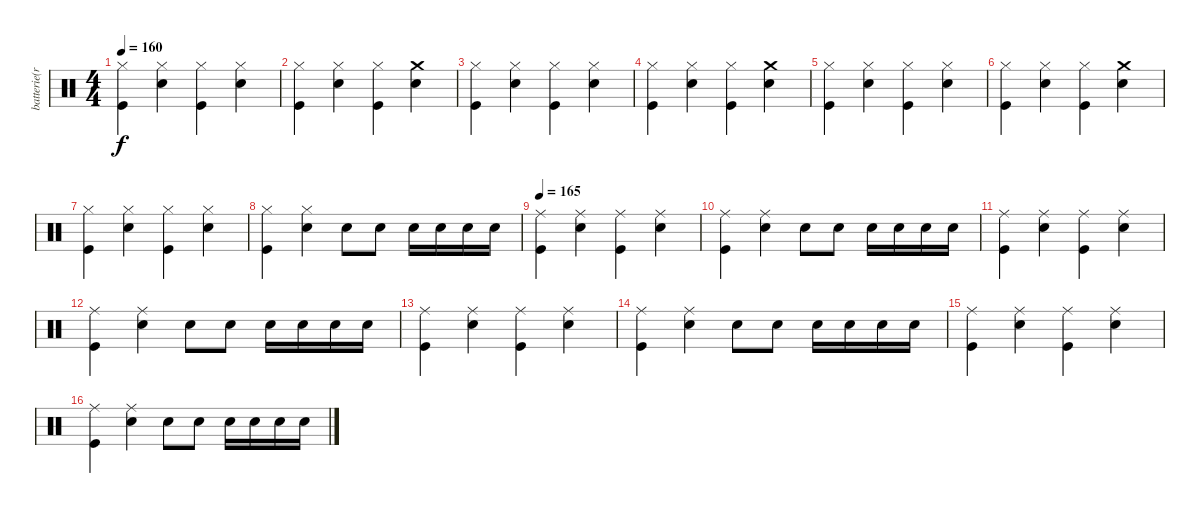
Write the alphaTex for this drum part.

\track ("batterie(rimbaud)" "batterie(r") {instrument percussion}
\staff {score}
\articulation defaults
\ts (4 4)
\tempo 160
\clef neutral
\ks c
("Hi-Hat (closed)" "Kick (hit)").4{dy f} ("Hi-Hat (closed)" "Snare (hit) 2").4 ("Hi-Hat (closed)" "Kick (hit)").4 ("Hi-Hat (closed)" "Snare (hit) 2").4 |
("Hi-Hat (closed)" "Kick (hit)").4 ("Hi-Hat (closed)" "Snare (hit) 2").4 ("Hi-Hat (closed)" "Kick (hit)").4 ("Crash medium (hit)" "Snare (hit) 2").4 |
("Hi-Hat (closed)" "Kick (hit)").4 ("Hi-Hat (closed)" "Snare (hit) 2").4 ("Hi-Hat (closed)" "Kick (hit)").4 ("Hi-Hat (closed)" "Snare (hit) 2").4 |
("Hi-Hat (closed)" "Kick (hit)").4 ("Hi-Hat (closed)" "Snare (hit) 2").4 ("Hi-Hat (closed)" "Kick (hit)").4 ("Crash medium (hit)" "Snare (hit) 2").4 |
("Hi-Hat (closed)" "Kick (hit)").4 ("Hi-Hat (closed)" "Snare (hit) 2").4 ("Hi-Hat (closed)" "Kick (hit)").4 ("Hi-Hat (closed)" "Snare (hit) 2").4 |
("Hi-Hat (closed)" "Kick (hit)").4 ("Hi-Hat (closed)" "Snare (hit) 2").4 ("Hi-Hat (closed)" "Kick (hit)").4 ("Crash medium (hit)" "Snare (hit) 2").4 |
("Hi-Hat (closed)" "Kick (hit)").4 ("Hi-Hat (closed)" "Snare (hit) 2").4 ("Hi-Hat (closed)" "Kick (hit)").4 ("Hi-Hat (closed)" "Snare (hit) 2").4 |
("Hi-Hat (closed)" "Kick (hit)").4 ("Hi-Hat (closed)" "Snare (hit) 2").4 "Snare (hit) 2".8 "Snare (hit) 2".8 "Snare (hit) 2".16 "Snare (hit) 2".16 "Snare (hit) 2".16 "Snare (hit) 2".16 |
\tempo 165
("Ride (middle)" "Kick (hit)").4 ("Ride (middle)" "Snare (hit) 2").4 ("Ride (middle)" "Kick (hit)").4 ("Ride (middle)" "Snare (hit) 2").4 |
("Ride (middle)" "Kick (hit)").4 ("Ride (middle)" "Snare (hit) 2").4 "Snare (hit) 2".8 "Snare (hit) 2".8 "Snare (hit) 2".16 "Snare (hit) 2".16 "Snare (hit) 2".16 "Snare (hit) 2".16 |
("Ride (middle)" "Kick (hit)").4 ("Ride (middle)" "Snare (hit) 2").4 ("Ride (middle)" "Kick (hit)").4 ("Ride (middle)" "Snare (hit) 2").4 |
("Ride (middle)" "Kick (hit)").4 ("Ride (middle)" "Snare (hit) 2").4 "Snare (hit) 2".8 "Snare (hit) 2".8 "Snare (hit) 2".16 "Snare (hit) 2".16 "Snare (hit) 2".16 "Snare (hit) 2".16 |
("Ride (middle)" "Kick (hit)").4 ("Ride (middle)" "Snare (hit) 2").4 ("Ride (middle)" "Kick (hit)").4 ("Ride (middle)" "Snare (hit) 2").4 |
("Ride (middle)" "Kick (hit)").4 ("Ride (middle)" "Snare (hit) 2").4 "Snare (hit) 2".8 "Snare (hit) 2".8 "Snare (hit) 2".16 "Snare (hit) 2".16 "Snare (hit) 2".16 "Snare (hit) 2".16 |
("Ride (middle)" "Kick (hit)").4 ("Ride (middle)" "Snare (hit) 2").4 ("Ride (middle)" "Kick (hit)").4 ("Ride (middle)" "Snare (hit) 2").4 |
("Ride (middle)" "Kick (hit)").4 ("Ride (middle)" "Snare (hit) 2").4 "Snare (hit) 2".8 "Snare (hit) 2".8 "Snare (hit) 2".16 "Snare (hit) 2".16 "Snare (hit) 2".16 "Snare (hit) 2".16
